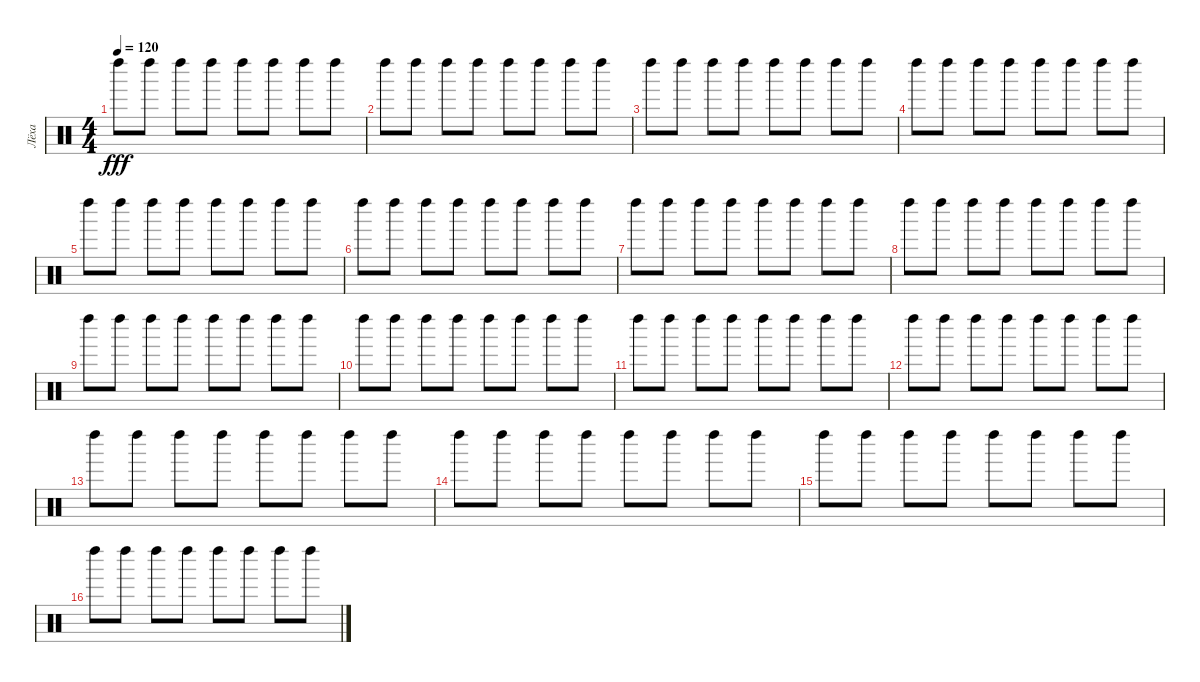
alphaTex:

\track ("Лёха" "Лёха") {instrument percussion}
\staff {score}
\articulation defaults
\ts (4 4)
\tempo 120
\clef neutral
\ks c "Left Maraca (hit)".8{dy fff} "Left Maraca (hit)".8 "Left Maraca (hit)".8 "Left Maraca (hit)".8 "Left Maraca (hit)".8 "Left Maraca (hit)".8 "Left Maraca (hit)".8 "Left Maraca (hit)".8
|
"Left Maraca (hit)".8 "Left Maraca (hit)".8 "Left Maraca (hit)".8 "Left Maraca (hit)".8 "Left Maraca (hit)".8 "Left Maraca (hit)".8 "Left Maraca (hit)".8 "Left Maraca (hit)".8 |
"Left Maraca (hit)".8 "Left Maraca (hit)".8 "Left Maraca (hit)".8 "Left Maraca (hit)".8 "Left Maraca (hit)".8 "Left Maraca (hit)".8 "Left Maraca (hit)".8 "Left Maraca (hit)".8 |
"Left Maraca (hit)".8 "Left Maraca (hit)".8 "Left Maraca (hit)".8 "Left Maraca (hit)".8 "Left Maraca (hit)".8 "Left Maraca (hit)".8 "Left Maraca (hit)".8 "Left Maraca (hit)".8 |
"Left Maraca (hit)".8 "Left Maraca (hit)".8 "Left Maraca (hit)".8 "Left Maraca (hit)".8 "Left Maraca (hit)".8 "Left Maraca (hit)".8 "Left Maraca (hit)".8 "Left Maraca (hit)".8 |
"Left Maraca (hit)".8 "Left Maraca (hit)".8 "Left Maraca (hit)".8 "Left Maraca (hit)".8 "Left Maraca (hit)".8 "Left Maraca (hit)".8 "Left Maraca (hit)".8 "Left Maraca (hit)".8 |
"Left Maraca (hit)".8 "Left Maraca (hit)".8 "Left Maraca (hit)".8 "Left Maraca (hit)".8 "Left Maraca (hit)".8 "Left Maraca (hit)".8 "Left Maraca (hit)".8 "Left Maraca (hit)".8 |
"Left Maraca (hit)".8 "Left Maraca (hit)".8 "Left Maraca (hit)".8 "Left Maraca (hit)".8 "Left Maraca (hit)".8 "Left Maraca (hit)".8 "Left Maraca (hit)".8 "Left Maraca (hit)".8 |
"Left Maraca (hit)".8 "Left Maraca (hit)".8 "Left Maraca (hit)".8 "Left Maraca (hit)".8 "Left Maraca (hit)".8 "Left Maraca (hit)".8 "Left Maraca (hit)".8 "Left Maraca (hit)".8 |
"Left Maraca (hit)".8 "Left Maraca (hit)".8 "Left Maraca (hit)".8 "Left Maraca (hit)".8 "Left Maraca (hit)".8 "Left Maraca (hit)".8 "Left Maraca (hit)".8 "Left Maraca (hit)".8 |
"Left Maraca (hit)".8 "Left Maraca (hit)".8 "Left Maraca (hit)".8 "Left Maraca (hit)".8 "Left Maraca (hit)".8 "Left Maraca (hit)".8 "Left Maraca (hit)".8 "Left Maraca (hit)".8 |
"Left Maraca (hit)".8 "Left Maraca (hit)".8 "Left Maraca (hit)".8 "Left Maraca (hit)".8 "Left Maraca (hit)".8 "Left Maraca (hit)".8 "Left Maraca (hit)".8 "Left Maraca (hit)".8 |
"Left Maraca (hit)".8 "Left Maraca (hit)".8 "Left Maraca (hit)".8 "Left Maraca (hit)".8 "Left Maraca (hit)".8 "Left Maraca (hit)".8 "Left Maraca (hit)".8 "Left Maraca (hit)".8 |
"Left Maraca (hit)".8 "Left Maraca (hit)".8 "Left Maraca (hit)".8 "Left Maraca (hit)".8 "Left Maraca (hit)".8 "Left Maraca (hit)".8 "Left Maraca (hit)".8 "Left Maraca (hit)".8 |
"Left Maraca (hit)".8 "Left Maraca (hit)".8 "Left Maraca (hit)".8 "Left Maraca (hit)".8 "Left Maraca (hit)".8 "Left Maraca (hit)".8 "Left Maraca (hit)".8 "Left Maraca (hit)".8 |
"Left Maraca (hit)".8 "Left Maraca (hit)".8 "Left Maraca (hit)".8 "Left Maraca (hit)".8 "Left Maraca (hit)".8 "Left Maraca (hit)".8 "Left Maraca (hit)".8 "Left Maraca (hit)".8
